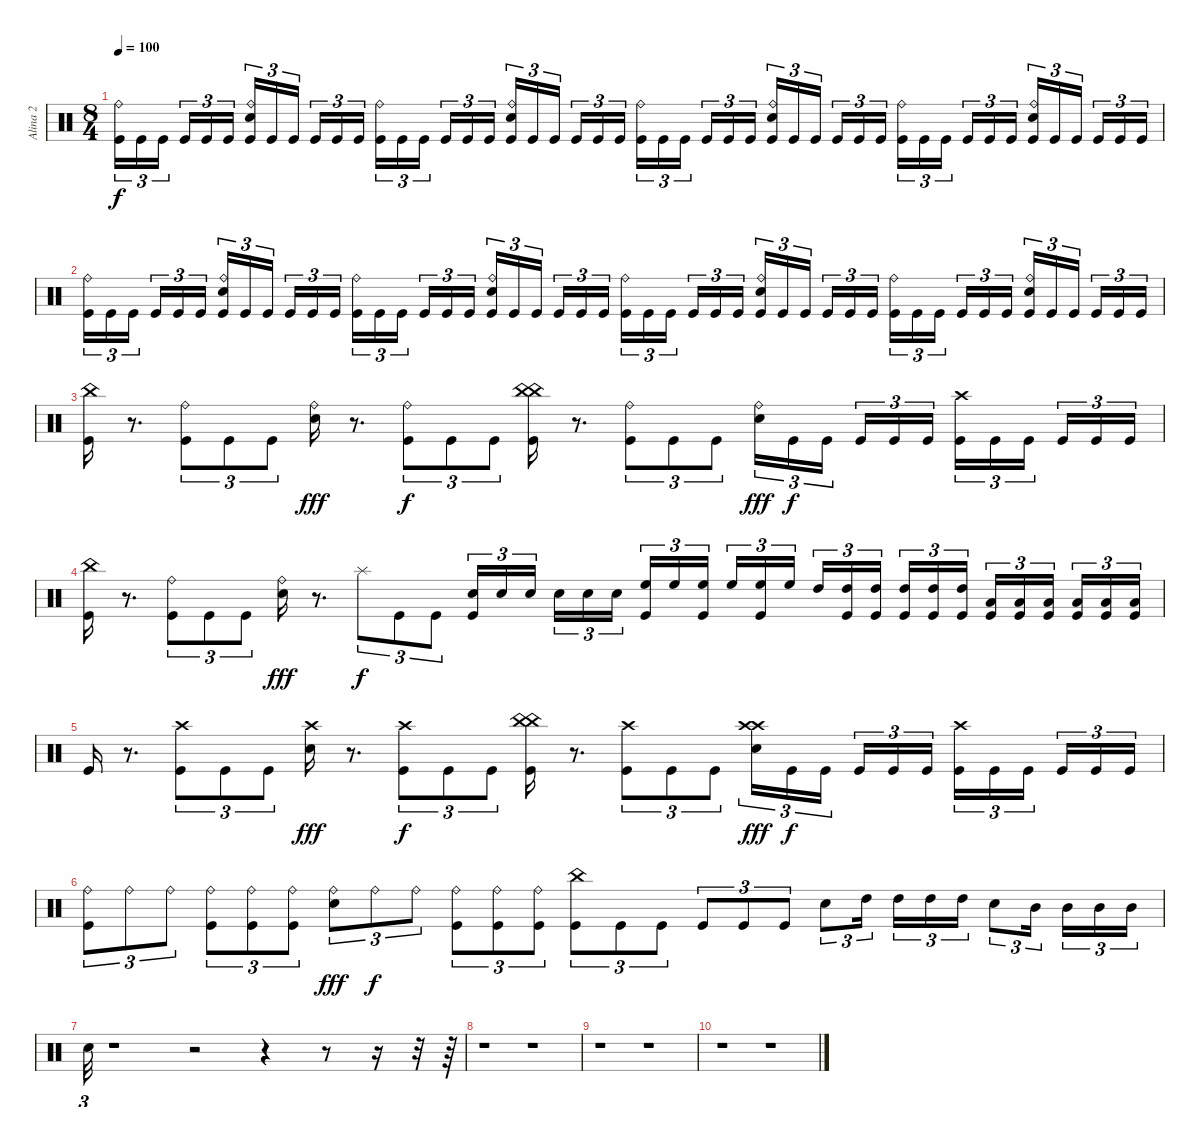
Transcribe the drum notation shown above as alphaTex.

\track ("Alina 2" "Alina 2") {mute instrument percussion}
\staff {score}
\articulation defaults
\ts (8 4)
\tempo 100
\clef neutral
\ks c
("Kick (hit)" "Ride (bell)").16{tu (3 2) dy f} "Kick (hit)".16{tu (3 2)} "Kick (hit)".16{tu (3 2)} "Kick (hit)".16{tu (3 2)} "Kick (hit)".16{tu (3 2)} "Kick (hit)".16{tu (3 2)} ("Kick (hit)" "Snare (hit) 2" "Ride (bell)").16{tu (3 2)} "Kick (hit)".16{tu (3 2)} "Kick (hit)".16{tu (3 2)} "Kick (hit)".16{tu (3 2)} "Kick (hit)".16{tu (3 2)} "Kick (hit)".16{tu (3 2)} ("Kick (hit)" "Ride (bell)").16{tu (3 2)} "Kick (hit)".16{tu (3 2)} "Kick (hit)".16{tu (3 2)} "Kick (hit)".16{tu (3 2)} "Kick (hit)".16{tu (3 2)} "Kick (hit)".16{tu (3 2)} ("Kick (hit)" "Snare (hit) 2" "Ride (bell)").16{tu (3 2)} "Kick (hit)".16{tu (3 2)} "Kick (hit)".16{tu (3 2)} "Kick (hit)".16{tu (3 2)} "Kick (hit)".16{tu (3 2)} "Kick (hit)".16{tu (3 2)} ("Kick (hit)" "Ride (bell)").16{tu (3 2)} "Kick (hit)".16{tu (3 2)} "Kick (hit)".16{tu (3 2)} "Kick (hit)".16{tu (3 2)} "Kick (hit)".16{tu (3 2)} "Kick (hit)".16{tu (3 2)} ("Kick (hit)" "Snare (hit) 2" "Ride (bell)").16{tu (3 2)} "Kick (hit)".16{tu (3 2)} "Kick (hit)".16{tu (3 2)} "Kick (hit)".16{tu (3 2)} "Kick (hit)".16{tu (3 2)} "Kick (hit)".16{tu (3 2)} ("Kick (hit)" "Ride (bell)").16{tu (3 2)} "Kick (hit)".16{tu (3 2)} "Kick (hit)".16{tu (3 2)} "Kick (hit)".16{tu (3 2)} "Kick (hit)".16{tu (3 2)} "Kick (hit)".16{tu (3 2)} ("Kick (hit)" "Snare (hit) 2" "Ride (bell)").16{tu (3 2)} "Kick (hit)".16{tu (3 2)} "Kick (hit)".16{tu (3 2)} "Kick (hit)".16{tu (3 2)} "Kick (hit)".16{tu (3 2)} "Kick (hit)".16{tu (3 2)} |
("Kick (hit)" "Ride (bell)").16{tu (3 2)} "Kick (hit)".16{tu (3 2)} "Kick (hit)".16{tu (3 2)} "Kick (hit)".16{tu (3 2)} "Kick (hit)".16{tu (3 2)} "Kick (hit)".16{tu (3 2)} ("Kick (hit)" "Snare (hit) 2" "Ride (bell)").16{tu (3 2)} "Kick (hit)".16{tu (3 2)} "Kick (hit)".16{tu (3 2)} "Kick (hit)".16{tu (3 2)} "Kick (hit)".16{tu (3 2)} "Kick (hit)".16{tu (3 2)} ("Kick (hit)" "Ride (bell)").16{tu (3 2)} "Kick (hit)".16{tu (3 2)} "Kick (hit)".16{tu (3 2)} "Kick (hit)".16{tu (3 2)} "Kick (hit)".16{tu (3 2)} "Kick (hit)".16{tu (3 2)} ("Kick (hit)" "Snare (hit) 2" "Ride (bell)").16{tu (3 2)} "Kick (hit)".16{tu (3 2)} "Kick (hit)".16{tu (3 2)} "Kick (hit)".16{tu (3 2)} "Kick (hit)".16{tu (3 2)} "Kick (hit)".16{tu (3 2)} ("Kick (hit)" "Ride (bell)").16{tu (3 2)} "Kick (hit)".16{tu (3 2)} "Kick (hit)".16{tu (3 2)} "Kick (hit)".16{tu (3 2)} "Kick (hit)".16{tu (3 2)} "Kick (hit)".16{tu (3 2)} ("Kick (hit)" "Snare (hit) 2" "Ride (bell)").16{tu (3 2)} "Kick (hit)".16{tu (3 2)} "Kick (hit)".16{tu (3 2)} "Kick (hit)".16{tu (3 2)} "Kick (hit)".16{tu (3 2)} "Kick (hit)".16{tu (3 2)} ("Kick (hit)" "Ride (bell)").16{tu (3 2)} "Kick (hit)".16{tu (3 2)} "Kick (hit)".16{tu (3 2)} "Kick (hit)".16{tu (3 2)} "Kick (hit)".16{tu (3 2)} "Kick (hit)".16{tu (3 2)} ("Kick (hit)" "Snare (hit) 2" "Ride (bell)").16{tu (3 2)} "Kick (hit)".16{tu (3 2)} "Kick (hit)".16{tu (3 2)} "Kick (hit)".16{tu (3 2)} "Kick (hit)".16{tu (3 2)} "Kick (hit)".16{tu (3 2)} |
("Kick (hit)" "China (hit)").16 r.8{d} ("Kick (hit)" "Ride (bell)").8{tu (3 2)} "Kick (hit)".8{tu (3 2)} "Kick (hit)".8{tu (3 2)} ("Snare (hit) 2" "Ride (bell)").16{dy fff} r.8{d} ("Kick (hit)" "Ride (bell)").8{tu (3 2) dy f} "Kick (hit)".8{tu (3 2)} "Kick (hit)".8{tu (3 2)} ("Kick (hit)" "China (hit)" "China (hit)").16 r.8{d} ("Kick (hit)" "Ride (bell)").8{tu (3 2)} "Kick (hit)".8{tu (3 2)} "Kick (hit)".8{tu (3 2)} ("Snare (hit) 2" "Ride (bell)").16{tu (3 2) dy fff} "Kick (hit)".16{tu (3 2) dy f} "Kick (hit)".16{tu (3 2)} "Kick (hit)".16{tu (3 2)} "Kick (hit)".16{tu (3 2)} "Kick (hit)".16{tu (3 2)} ("Kick (hit)" "Crash high (hit)").16{tu (3 2)} "Kick (hit)".16{tu (3 2)} "Kick (hit)".16{tu (3 2)} "Kick (hit)".16{tu (3 2)} "Kick (hit)".16{tu (3 2)} "Kick (hit)".16{tu (3 2)} |
("Kick (hit)" "China (hit)").16 r.8{d} ("Kick (hit)" "Ride (bell)").8{tu (3 2)} "Kick (hit)".8{tu (3 2)} "Kick (hit)".8{tu (3 2)} ("Snare (hit) 2" "Ride (bell)").16{dy fff} r.8{d} "Splash (hit)".8{tu (3 2) dy f} "Kick (hit)".8{tu (3 2)} "Kick (hit)".8{tu (3 2)} ("Kick (hit)" "Snare (hit) 2").16{tu (3 2)} "Snare (hit) 2".16{tu (3 2)} "Snare (hit) 2".16{tu (3 2)} "Snare (hit) 2".16{tu (3 2)} "Snare (hit) 2".16{tu (3 2)} "Snare (hit) 2".16{tu (3 2)} ("Kick (hit)" "High Floor Tom (hit)").16{tu (3 2)} "High Floor Tom (hit)".16{tu (3 2)} ("Kick (hit)" "High Floor Tom (hit)").16{tu (3 2)} "High Floor Tom (hit)".16{tu (3 2)} ("Kick (hit)" "High Floor Tom (hit)").16{tu (3 2)} "High Floor Tom (hit)".16{tu (3 2)} "High Tom (hit)".16{tu (3 2)} ("Kick (hit)" "High Tom (hit)").16{tu (3 2)} ("Kick (hit)" "High Tom (hit)").16{tu (3 2)} ("Kick (hit)" "High Tom (hit)").16{tu (3 2)} ("Kick (hit)" "High Tom (hit)").16{tu (3 2)} ("Kick (hit)" "High Tom (hit)").16{tu (3 2)} ("Kick (hit)" "Low Tom (hit)").16{tu (3 2)} ("Kick (hit)" "Low Tom (hit)").16{tu (3 2)} ("Kick (hit)" "Low Tom (hit)").16{tu (3 2)} ("Kick (hit)" "Low Tom (hit)").16{tu (3 2)} ("Kick (hit)" "Low Tom (hit)").16{tu (3 2)} ("Kick (hit)" "Low Tom (hit)").16{tu (3 2)} |
"Kick (hit)".16 r.8{d} ("Kick (hit)" "Crash high (hit)").8{tu (3 2)} "Kick (hit)".8{tu (3 2)} "Kick (hit)".8{tu (3 2)} ("Snare (hit) 2" "Crash high (hit)").16{dy fff} r.8{d} ("Kick (hit)" "Crash high (hit)").8{tu (3 2) dy f} "Kick (hit)".8{tu (3 2)} "Kick (hit)".8{tu (3 2)} ("Kick (hit)" "China (hit)" "China (hit)").16 r.8{d} ("Kick (hit)" "Crash high (hit)").8{tu (3 2)} "Kick (hit)".8{tu (3 2)} "Kick (hit)".8{tu (3 2)} ("Snare (hit) 2" "Crash high (hit)" "Crash high (hit)").16{tu (3 2) dy fff} "Kick (hit)".16{tu (3 2) dy f} "Kick (hit)".16{tu (3 2)} "Kick (hit)".16{tu (3 2)} "Kick (hit)".16{tu (3 2)} "Kick (hit)".16{tu (3 2)} ("Kick (hit)" "Crash high (hit)").16{tu (3 2)} "Kick (hit)".16{tu (3 2)} "Kick (hit)".16{tu (3 2)} "Kick (hit)".16{tu (3 2)} "Kick (hit)".16{tu (3 2)} "Kick (hit)".16{tu (3 2)} |
("Kick (hit)" "Ride (bell)").8{tu (3 2)} "Ride (bell)".8{tu (3 2)} "Ride (bell)".8{tu (3 2)} ("Kick (hit)" "Ride (bell)").8{tu (3 2)} ("Kick (hit)" "Ride (bell)").8{tu (3 2)} ("Kick (hit)" "Ride (bell)").8{tu (3 2)} ("Snare (hit) 2" "Ride (bell)").8{tu (3 2) dy fff} "Ride (bell)".8{tu (3 2) dy f} "Ride (bell)".8{tu (3 2)} ("Kick (hit)" "Ride (bell)").8{tu (3 2)} ("Kick (hit)" "Ride (bell)").8{tu (3 2)} ("Kick (hit)" "Ride (bell)").8{tu (3 2)} ("Kick (hit)" "China (hit)").8{tu (3 2)} "Kick (hit)".8{tu (3 2)} "Kick (hit)".8{tu (3 2)} "Kick (hit)".8{tu (3 2)} "Kick (hit)".8{tu (3 2)} "Kick (hit)".8{tu (3 2)} "Snare (hit) 2".8{tu (3 2)} "High Tom (hit)".16{tu (3 2)} "High Tom (hit)".16{tu (3 2)} "High Tom (hit)".16{tu (3 2)} "High Tom (hit)".16{tu (3 2)} "Snare (hit) 2".8{tu (3 2)} "Mid Tom (hit)".16{tu (3 2)} "Mid Tom (hit)".16{tu (3 2)} "Mid Tom (hit)".16{tu (3 2)} "Mid Tom (hit)".16{tu (3 2)} |
"Snare (hit)".32{tu (3 2)} r.1 r.2 r.4 r.8 r.16 r.32 r.64{tu (3 2)} |
r.1 r.1 |
r.1 r.1 |
r.1 r.1
